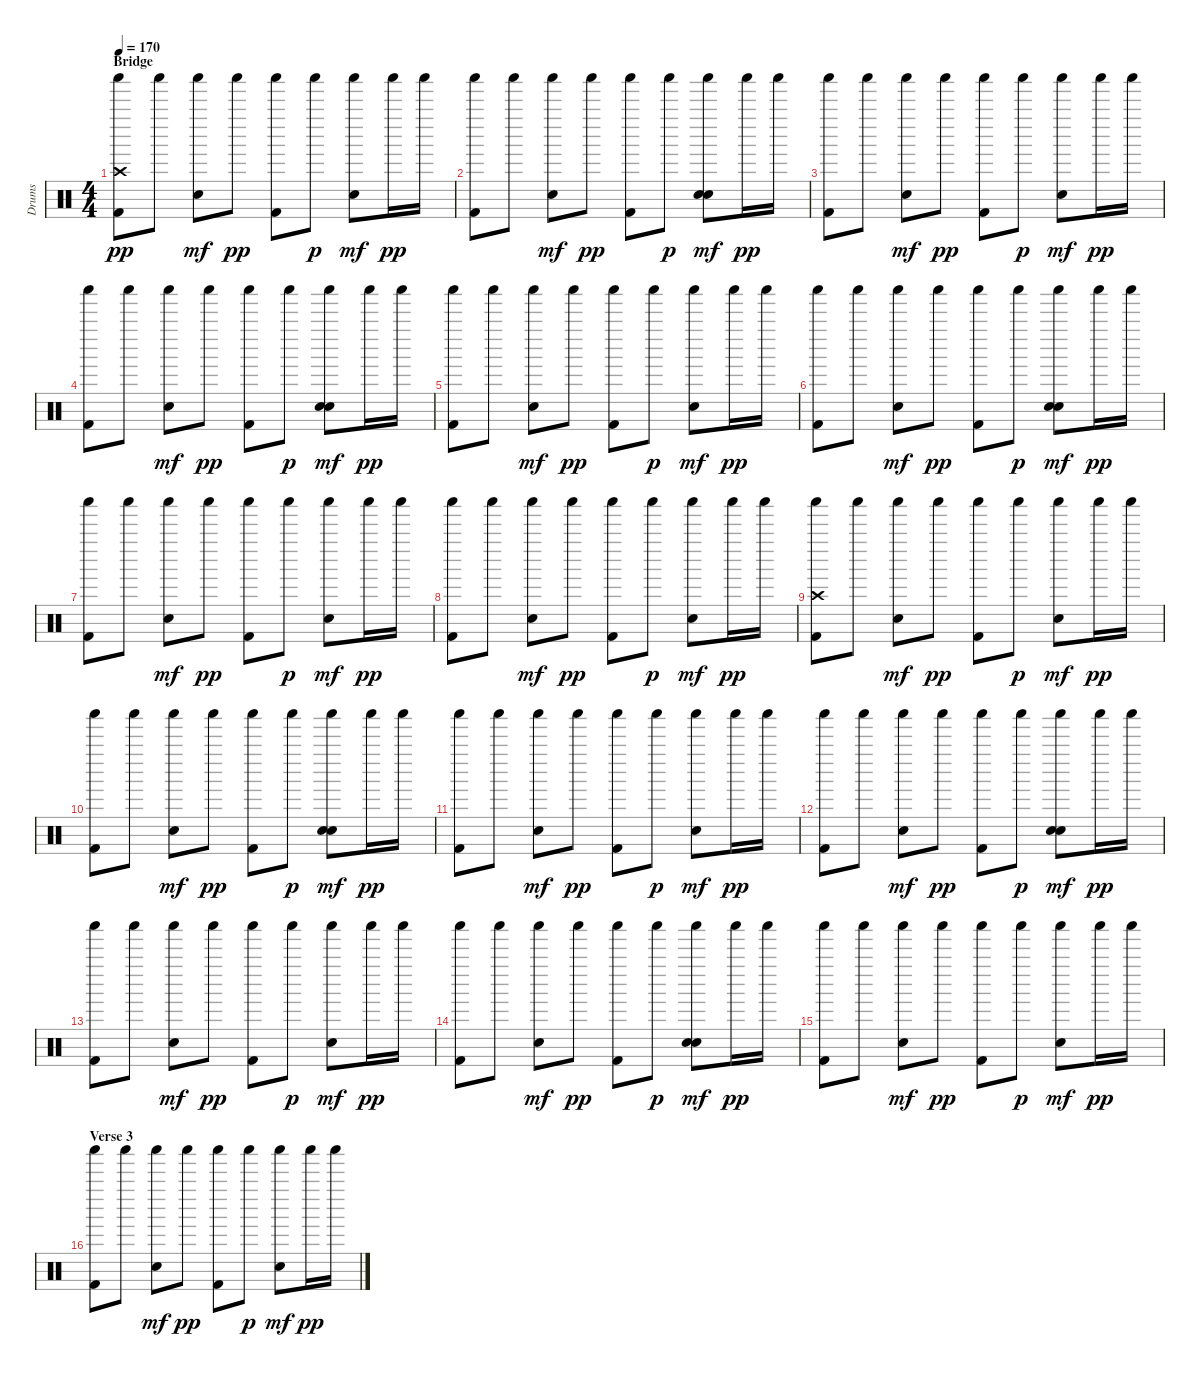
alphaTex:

\track ("Drums" "Drums") {instrument percussion}
\staff {score}
\articulation defaults
\ts (4 4)
\section ("" "Bridge")
\tempo 170
\clef neutral
\ks c
("Crash high (hit)" "Kick (hit) 2" "Shaker (hit)").8{dy pp} "Shaker (hit)".8 ("Snare (hit) 2" "Shaker (hit)").8{dy mf} "Shaker (hit)".8{dy pp} ("Kick (hit) 2" "Shaker (hit)").8 "Shaker (hit)".8{dy p} ("Snare (hit) 2" "Shaker (hit)").8{dy mf} "Shaker (hit)".16{dy pp} "Shaker (hit)".16 |
("Kick (hit) 2" "Shaker (hit)").8 "Shaker (hit)".8 ("Snare (hit) 2" "Shaker (hit)").8{dy mf} "Shaker (hit)".8{dy pp} ("Kick (hit) 2" "Shaker (hit)").8 "Shaker (hit)".8{dy p} ("Snare (hit) 2" "Shaker (hit)" "Hand Clap (hit)").8{dy mf} "Shaker (hit)".16{dy pp} "Shaker (hit)".16 |
("Kick (hit) 2" "Shaker (hit)").8 "Shaker (hit)".8 ("Snare (hit) 2" "Shaker (hit)").8{dy mf} "Shaker (hit)".8{dy pp} ("Kick (hit) 2" "Shaker (hit)").8 "Shaker (hit)".8{dy p} ("Snare (hit) 2" "Shaker (hit)").8{dy mf} "Shaker (hit)".16{dy pp} "Shaker (hit)".16 |
("Kick (hit) 2" "Shaker (hit)").8 "Shaker (hit)".8 ("Snare (hit) 2" "Shaker (hit)").8{dy mf} "Shaker (hit)".8{dy pp} ("Kick (hit) 2" "Shaker (hit)").8 "Shaker (hit)".8{dy p} ("Snare (hit) 2" "Shaker (hit)" "Hand Clap (hit)").8{dy mf} "Shaker (hit)".16{dy pp} "Shaker (hit)".16 |
("Kick (hit) 2" "Shaker (hit)").8 "Shaker (hit)".8 ("Snare (hit) 2" "Shaker (hit)").8{dy mf} "Shaker (hit)".8{dy pp} ("Kick (hit) 2" "Shaker (hit)").8 "Shaker (hit)".8{dy p} ("Snare (hit) 2" "Shaker (hit)").8{dy mf} "Shaker (hit)".16{dy pp} "Shaker (hit)".16 |
("Kick (hit) 2" "Shaker (hit)").8 "Shaker (hit)".8 ("Snare (hit) 2" "Shaker (hit)").8{dy mf} "Shaker (hit)".8{dy pp} ("Kick (hit) 2" "Shaker (hit)").8 "Shaker (hit)".8{dy p} ("Snare (hit) 2" "Shaker (hit)" "Hand Clap (hit)").8{dy mf} "Shaker (hit)".16{dy pp} "Shaker (hit)".16 |
("Kick (hit) 2" "Shaker (hit)").8 "Shaker (hit)".8 ("Snare (hit) 2" "Shaker (hit)").8{dy mf} "Shaker (hit)".8{dy pp} ("Kick (hit) 2" "Shaker (hit)").8 "Shaker (hit)".8{dy p} ("Snare (hit) 2" "Shaker (hit)").8{dy mf} "Shaker (hit)".16{dy pp} "Shaker (hit)".16 |
("Kick (hit) 2" "Shaker (hit)").8 "Shaker (hit)".8 ("Snare (hit) 2" "Shaker (hit)").8{dy mf} "Shaker (hit)".8{dy pp} ("Kick (hit) 2" "Shaker (hit)").8 "Shaker (hit)".8{dy p} ("Snare (hit) 2" "Shaker (hit)").8{dy mf} "Shaker (hit)".16{dy pp} "Shaker (hit)".16 |
("Crash high (hit)" "Kick (hit) 2" "Shaker (hit)").8 "Shaker (hit)".8 ("Snare (hit) 2" "Shaker (hit)").8{dy mf} "Shaker (hit)".8{dy pp} ("Kick (hit) 2" "Shaker (hit)").8 "Shaker (hit)".8{dy p} ("Snare (hit) 2" "Shaker (hit)").8{dy mf} "Shaker (hit)".16{dy pp} "Shaker (hit)".16 |
("Kick (hit) 2" "Shaker (hit)").8 "Shaker (hit)".8 ("Snare (hit) 2" "Shaker (hit)").8{dy mf} "Shaker (hit)".8{dy pp} ("Kick (hit) 2" "Shaker (hit)").8 "Shaker (hit)".8{dy p} ("Snare (hit) 2" "Shaker (hit)" "Hand Clap (hit)").8{dy mf} "Shaker (hit)".16{dy pp} "Shaker (hit)".16 |
("Kick (hit) 2" "Shaker (hit)").8 "Shaker (hit)".8 ("Snare (hit) 2" "Shaker (hit)").8{dy mf} "Shaker (hit)".8{dy pp} ("Kick (hit) 2" "Shaker (hit)").8 "Shaker (hit)".8{dy p} ("Snare (hit) 2" "Shaker (hit)").8{dy mf} "Shaker (hit)".16{dy pp} "Shaker (hit)".16 |
("Kick (hit) 2" "Shaker (hit)").8 "Shaker (hit)".8 ("Snare (hit) 2" "Shaker (hit)").8{dy mf} "Shaker (hit)".8{dy pp} ("Kick (hit) 2" "Shaker (hit)").8 "Shaker (hit)".8{dy p} ("Snare (hit) 2" "Shaker (hit)" "Hand Clap (hit)").8{dy mf} "Shaker (hit)".16{dy pp} "Shaker (hit)".16 |
("Kick (hit) 2" "Shaker (hit)").8 "Shaker (hit)".8 ("Snare (hit) 2" "Shaker (hit)").8{dy mf} "Shaker (hit)".8{dy pp} ("Kick (hit) 2" "Shaker (hit)").8 "Shaker (hit)".8{dy p} ("Snare (hit) 2" "Shaker (hit)").8{dy mf} "Shaker (hit)".16{dy pp} "Shaker (hit)".16 |
("Kick (hit) 2" "Shaker (hit)").8 "Shaker (hit)".8 ("Snare (hit) 2" "Shaker (hit)").8{dy mf} "Shaker (hit)".8{dy pp} ("Kick (hit) 2" "Shaker (hit)").8 "Shaker (hit)".8{dy p} ("Snare (hit) 2" "Shaker (hit)" "Hand Clap (hit)").8{dy mf} "Shaker (hit)".16{dy pp} "Shaker (hit)".16 |
("Kick (hit) 2" "Shaker (hit)").8 "Shaker (hit)".8 ("Snare (hit) 2" "Shaker (hit)").8{dy mf} "Shaker (hit)".8{dy pp} ("Kick (hit) 2" "Shaker (hit)").8 "Shaker (hit)".8{dy p} ("Snare (hit) 2" "Shaker (hit)").8{dy mf} "Shaker (hit)".16{dy pp} "Shaker (hit)".16 |
\section ("" "Verse 3")
("Kick (hit) 2" "Shaker (hit)").8 "Shaker (hit)".8 ("Snare (hit) 2" "Shaker (hit)").8{dy mf} "Shaker (hit)".8{dy pp} ("Kick (hit) 2" "Shaker (hit)").8 "Shaker (hit)".8{dy p} ("Snare (hit) 2" "Shaker (hit)").8{dy mf} "Shaker (hit)".16{dy pp} "Shaker (hit)".16
